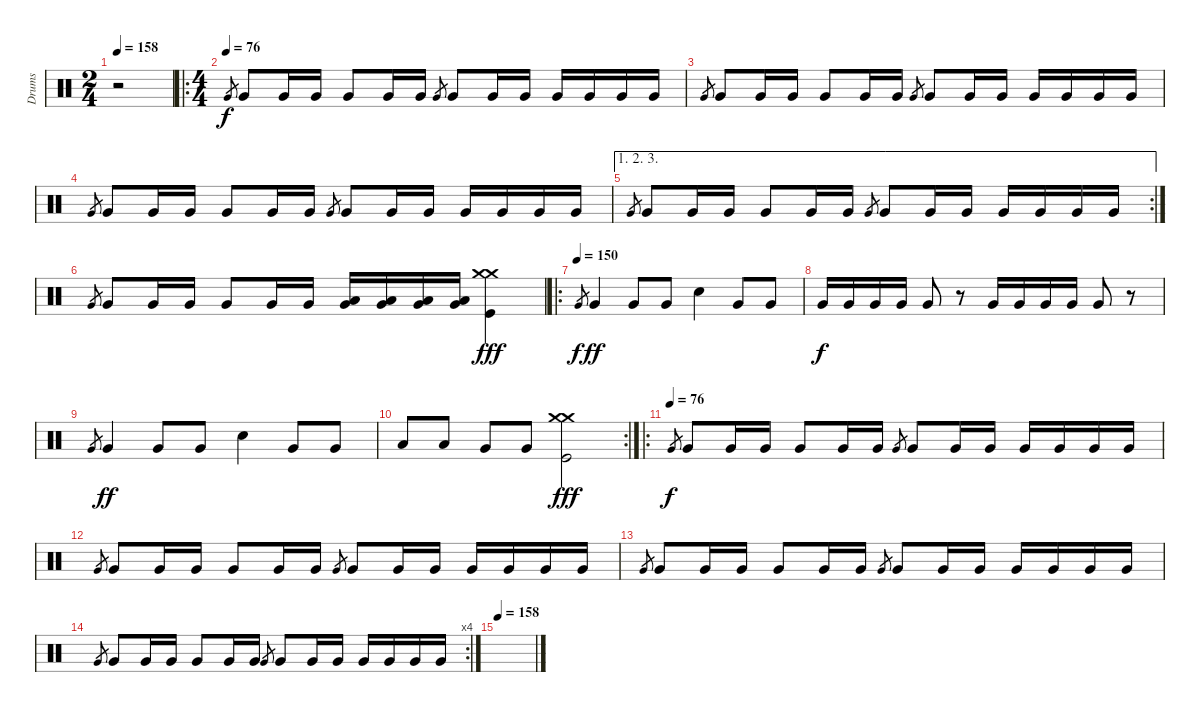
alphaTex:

\track ("Drums" "Drums") {instrument percussion}
\staff {score}
\articulation defaults
\ts (2 4)
\tempo 158
\tempo 76
\tempo 158
\clef neutral
\ks c
r.2{dy f} |
\ro
\ts (4 4)
\tempo (76)
"Very Low Tom (hit)".8{gr} "Very Low Tom (hit)".8 "Very Low Tom (hit)".16 "Very Low Tom (hit)".16 "Very Low Tom (hit)".8 "Very Low Tom (hit)".16 "Very Low Tom (hit)".16 "Very Low Tom (hit)".8{gr} "Very Low Tom (hit)".8 "Very Low Tom (hit)".16 "Very Low Tom (hit)".16 "Very Low Tom (hit)".16 "Very Low Tom (hit)".16 "Very Low Tom (hit)".16 "Very Low Tom (hit)".16 |
"Very Low Tom (hit)".8{gr} "Very Low Tom (hit)".8 "Very Low Tom (hit)".16 "Very Low Tom (hit)".16 "Very Low Tom (hit)".8 "Very Low Tom (hit)".16 "Very Low Tom (hit)".16 "Very Low Tom (hit)".8{gr} "Very Low Tom (hit)".8 "Very Low Tom (hit)".16 "Very Low Tom (hit)".16 "Very Low Tom (hit)".16 "Very Low Tom (hit)".16 "Very Low Tom (hit)".16 "Very Low Tom (hit)".16 |
"Very Low Tom (hit)".8{gr} "Very Low Tom (hit)".8 "Very Low Tom (hit)".16 "Very Low Tom (hit)".16 "Very Low Tom (hit)".8 "Very Low Tom (hit)".16 "Very Low Tom (hit)".16 "Very Low Tom (hit)".8{gr} "Very Low Tom (hit)".8 "Very Low Tom (hit)".16 "Very Low Tom (hit)".16 "Very Low Tom (hit)".16 "Very Low Tom (hit)".16 "Very Low Tom (hit)".16 "Very Low Tom (hit)".16 |
\ae (1 2 3)
\rc 2 "Very Low Tom (hit)".8{gr} "Very Low Tom (hit)".8 "Very Low Tom (hit)".16 "Very Low Tom (hit)".16 "Very Low Tom (hit)".8 "Very Low Tom (hit)".16 "Very Low Tom (hit)".16 "Very Low Tom (hit)".8{gr} "Very Low Tom (hit)".8 "Very Low Tom (hit)".16 "Very Low Tom (hit)".16 "Very Low Tom (hit)".16 "Very Low Tom (hit)".16 "Very Low Tom (hit)".16 "Very Low Tom (hit)".16
|
"Very Low Tom (hit)".8{gr} "Very Low Tom (hit)".8 "Very Low Tom (hit)".16 "Very Low Tom (hit)".16 "Very Low Tom (hit)".8 "Very Low Tom (hit)".16 "Very Low Tom (hit)".16 ("Low Tom (hit)" "Very Low Tom (hit)").16 ("Low Tom (hit)" "Very Low Tom (hit)").16 ("Low Tom (hit)" "Very Low Tom (hit)").16 ("Low Tom (hit)" "Very Low Tom (hit)").16 ("Crash medium (hit)" "Crash medium (hit)" "Kick (hit)").4{dy fff} |
\ro
\tempo 158
\tempo (150)
"Very Low Tom (hit)".8{gr dy f} "Very Low Tom (hit)".4{dy ff} "Very Low Tom (hit)".8 "Very Low Tom (hit)".8 "Electric Snare (hit)".4 "Very Low Tom (hit)".8 "Very Low Tom (hit)".8 |
"Very Low Tom (hit)".16{dy f} "Very Low Tom (hit)".16 "Very Low Tom (hit)".16 "Very Low Tom (hit)".16 "Very Low Tom (hit)".8 r.8 "Very Low Tom (hit)".16 "Very Low Tom (hit)".16 "Very Low Tom (hit)".16 "Very Low Tom (hit)".16 "Very Low Tom (hit)".8 r.8 |
"Very Low Tom (hit)".8{gr} "Very Low Tom (hit)".4{dy ff} "Very Low Tom (hit)".8 "Very Low Tom (hit)".8 "Electric Snare (hit)".4 "Very Low Tom (hit)".8 "Very Low Tom (hit)".8 |
\rc 2 "Low Tom (hit)".8 "Low Tom (hit)".8 "Very Low Tom (hit)".8 "Very Low Tom (hit)".8
("Crash medium (hit)" "Crash medium (hit)" "Kick (hit)").2{dy fff} |
\ro
\tempo (76)
"Very Low Tom (hit)".8{gr dy f} "Very Low Tom (hit)".8 "Very Low Tom (hit)".16 "Very Low Tom (hit)".16 "Very Low Tom (hit)".8 "Very Low Tom (hit)".16 "Very Low Tom (hit)".16 "Very Low Tom (hit)".8{gr} "Very Low Tom (hit)".8 "Very Low Tom (hit)".16 "Very Low Tom (hit)".16 "Very Low Tom (hit)".16 "Very Low Tom (hit)".16 "Very Low Tom (hit)".16 "Very Low Tom (hit)".16 |
"Very Low Tom (hit)".8{gr} "Very Low Tom (hit)".8 "Very Low Tom (hit)".16 "Very Low Tom (hit)".16 "Very Low Tom (hit)".8 "Very Low Tom (hit)".16 "Very Low Tom (hit)".16 "Very Low Tom (hit)".8{gr} "Very Low Tom (hit)".8 "Very Low Tom (hit)".16 "Very Low Tom (hit)".16 "Very Low Tom (hit)".16 "Very Low Tom (hit)".16 "Very Low Tom (hit)".16 "Very Low Tom (hit)".16 |
"Very Low Tom (hit)".8{gr} "Very Low Tom (hit)".8 "Very Low Tom (hit)".16 "Very Low Tom (hit)".16 "Very Low Tom (hit)".8 "Very Low Tom (hit)".16 "Very Low Tom (hit)".16 "Very Low Tom (hit)".8{gr} "Very Low Tom (hit)".8 "Very Low Tom (hit)".16 "Very Low Tom (hit)".16 "Very Low Tom (hit)".16 "Very Low Tom (hit)".16 "Very Low Tom (hit)".16 "Very Low Tom (hit)".16 |
\rc 4 "Very Low Tom (hit)".8{gr} "Very Low Tom (hit)".8 "Very Low Tom (hit)".16 "Very Low Tom (hit)".16 "Very Low Tom (hit)".8 "Very Low Tom (hit)".16 "Very Low Tom (hit)".16 "Very Low Tom (hit)".8{gr} "Very Low Tom (hit)".8 "Very Low Tom (hit)".16 "Very Low Tom (hit)".16 "Very Low Tom (hit)".16 "Very Low Tom (hit)".16 "Very Low Tom (hit)".16 "Very Low Tom (hit)".16
|
\tempo 158
